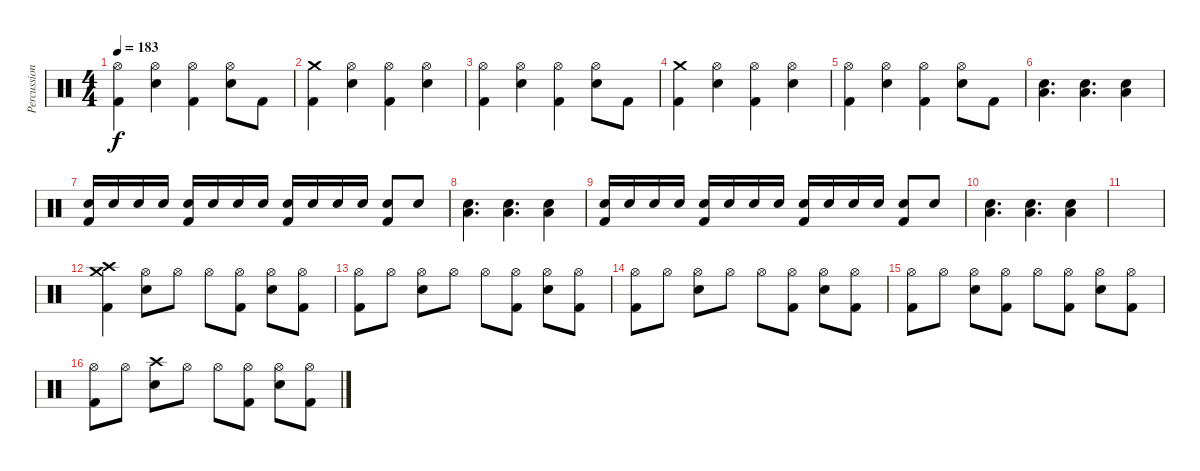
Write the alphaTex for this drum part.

\track ("Percussion" "Percussion") {instrument percussion}
\staff {score}
\articulation defaults
\ts (4 4)
\tempo 183
\clef neutral
\ks c
("Hi-Hat (open)" "Kick (hit) 2").4{dy f} ("Hi-Hat (open)" "Snare (hit) 2").4 ("Hi-Hat (open)" "Kick (hit) 2").4 ("Hi-Hat (open)" "Snare (hit) 2").8 "Kick (hit) 2".8 |
("Crash medium (hit)" "Kick (hit) 2").4 ("Hi-Hat (open)" "Snare (hit) 2").4 ("Hi-Hat (open)" "Kick (hit) 2").4 ("Hi-Hat (open)" "Snare (hit) 2").4 |
("Hi-Hat (open)" "Kick (hit) 2").4 ("Hi-Hat (open)" "Snare (hit) 2").4 ("Hi-Hat (open)" "Kick (hit) 2").4 ("Hi-Hat (open)" "Snare (hit) 2").8 "Kick (hit) 2".8 |
("Crash medium (hit)" "Kick (hit) 2").4 ("Hi-Hat (open)" "Snare (hit) 2").4 ("Hi-Hat (open)" "Kick (hit) 2").4 ("Hi-Hat (open)" "Snare (hit) 2").4 |
("Hi-Hat (open)" "Kick (hit) 2").4 ("Hi-Hat (open)" "Snare (hit) 2").4 ("Hi-Hat (open)" "Kick (hit) 2").4 ("Hi-Hat (open)" "Snare (hit) 2").8 "Kick (hit) 2".8 |
("Low Floor Tom (hit)" "Snare (hit) 2").4{d} ("Low Floor Tom (hit)" "Snare (hit) 2").4{d} ("Low Floor Tom (hit)" "Snare (hit) 2").4 |
("Snare (hit) 2" "Kick (hit) 2").16 "Snare (hit) 2".16 "Snare (hit) 2".16 "Snare (hit) 2".16 ("Snare (hit) 2" "Kick (hit) 2").16 "Snare (hit) 2".16 "Snare (hit) 2".16 "Snare (hit) 2".16 ("Snare (hit) 2" "Kick (hit) 2").16 "Snare (hit) 2".16 "Snare (hit) 2".16 "Snare (hit) 2".16 ("Snare (hit) 2" "Kick (hit) 2").8 "Snare (hit) 2".8 |
("Low Floor Tom (hit)" "Snare (hit) 2").4{d} ("Low Floor Tom (hit)" "Snare (hit) 2").4{d} ("Low Floor Tom (hit)" "Snare (hit) 2").4 |
("Snare (hit) 2" "Kick (hit) 2").16 "Snare (hit) 2".16 "Snare (hit) 2".16 "Snare (hit) 2".16 ("Snare (hit) 2" "Kick (hit) 2").16 "Snare (hit) 2".16 "Snare (hit) 2".16 "Snare (hit) 2".16 ("Snare (hit) 2" "Kick (hit) 2").16 "Snare (hit) 2".16 "Snare (hit) 2".16 "Snare (hit) 2".16 ("Snare (hit) 2" "Kick (hit) 2").8 "Snare (hit) 2".8 |
("Low Floor Tom (hit)" "Snare (hit) 2").4{d} ("Low Floor Tom (hit)" "Snare (hit) 2").4{d} ("Low Floor Tom (hit)" "Snare (hit) 2").4 |
|
("Crash medium (hit)" "Crash high (hit)" "Kick (hit) 2").4 ("Hi-Hat (open)" "Snare (hit) 2").8 "Hi-Hat (open)".8 "Hi-Hat (open)".8 ("Hi-Hat (open)" "Kick (hit) 2").8 ("Hi-Hat (open)" "Snare (hit) 2").8 ("Hi-Hat (open)" "Kick (hit) 2").8 |
("Hi-Hat (open)" "Kick (hit) 2").8 "Hi-Hat (open)".8 ("Hi-Hat (open)" "Snare (hit) 2").8 "Hi-Hat (open)".8 "Hi-Hat (open)".8 ("Hi-Hat (open)" "Kick (hit) 2").8 ("Hi-Hat (open)" "Snare (hit) 2").8 ("Hi-Hat (open)" "Kick (hit) 2").8 |
("Hi-Hat (open)" "Kick (hit) 2").8 "Hi-Hat (open)".8 ("Hi-Hat (open)" "Snare (hit) 2").8 "Hi-Hat (open)".8 "Hi-Hat (open)".8 ("Hi-Hat (open)" "Kick (hit) 2").8 ("Hi-Hat (open)" "Snare (hit) 2").8 ("Hi-Hat (open)" "Kick (hit) 2").8 |
("Hi-Hat (open)" "Kick (hit) 2").8 "Hi-Hat (open)".8 ("Hi-Hat (open)" "Snare (hit) 2").8 ("Hi-Hat (open)" "Kick (hit) 2").8 "Hi-Hat (open)".8 ("Hi-Hat (open)" "Kick (hit) 2").8 ("Hi-Hat (open)" "Snare (hit) 2").8 ("Hi-Hat (open)" "Kick (hit) 2").8 |
("Hi-Hat (open)" "Kick (hit) 2").8 "Hi-Hat (open)".8 ("Crash high (hit)" "Snare (hit) 2").8 "Hi-Hat (open)".8 "Hi-Hat (open)".8 ("Hi-Hat (open)" "Kick (hit) 2").8 ("Hi-Hat (open)" "Snare (hit) 2").8 ("Hi-Hat (open)" "Kick (hit) 2").8
